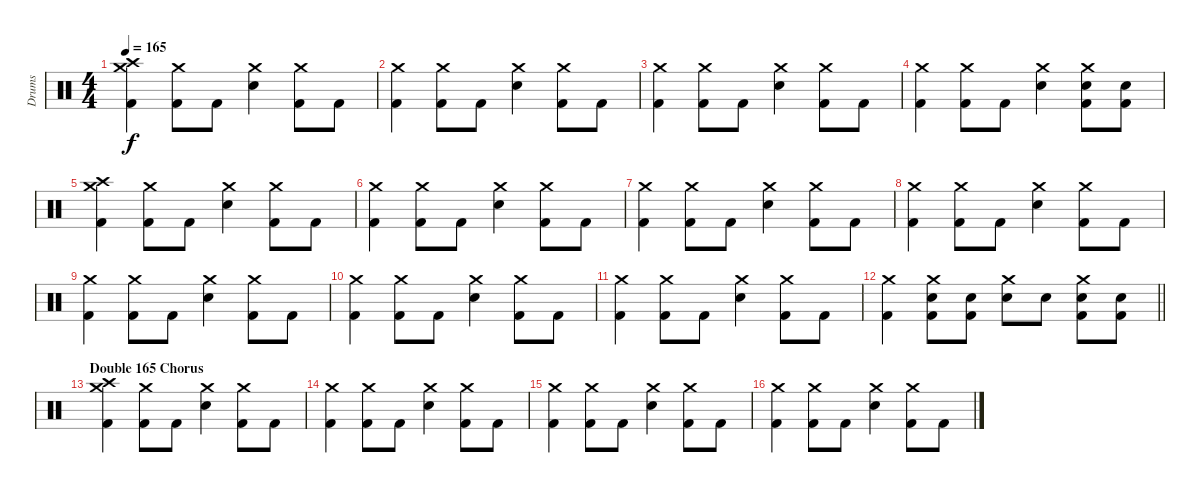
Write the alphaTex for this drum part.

\track ("Drums" "Drums") {instrument percussion}
\staff {score}
\articulation defaults
\ts (4 4)
\tempo 165
\clef neutral
\ks c
("Crash high (hit)" "Crash medium (hit)" "Kick (hit) 2").4{dy f} ("Crash medium (hit)" "Kick (hit) 2").8 "Kick (hit) 2".8 ("Crash medium (hit)" "Snare (hit) 2").4 ("Crash medium (hit)" "Kick (hit) 2").8 "Kick (hit) 2".8 |
("Crash medium (hit)" "Kick (hit) 2").4 ("Crash medium (hit)" "Kick (hit) 2").8 "Kick (hit) 2".8 ("Crash medium (hit)" "Snare (hit) 2").4 ("Crash medium (hit)" "Kick (hit) 2").8 "Kick (hit) 2".8 |
("Crash medium (hit)" "Kick (hit) 2").4 ("Crash medium (hit)" "Kick (hit) 2").8 "Kick (hit) 2".8 ("Crash medium (hit)" "Snare (hit) 2").4 ("Crash medium (hit)" "Kick (hit) 2").8 "Kick (hit) 2".8 |
("Crash medium (hit)" "Kick (hit) 2").4 ("Crash medium (hit)" "Kick (hit) 2").8 "Kick (hit) 2".8 ("Crash medium (hit)" "Snare (hit) 2").4 ("Crash medium (hit)" "Snare (hit) 2" "Kick (hit) 2").8 ("Snare (hit) 2" "Kick (hit) 2").8 |
("Crash high (hit)" "Crash medium (hit)" "Kick (hit) 2").4 ("Crash medium (hit)" "Kick (hit) 2").8 "Kick (hit) 2".8 ("Crash medium (hit)" "Snare (hit) 2").4 ("Crash medium (hit)" "Kick (hit) 2").8 "Kick (hit) 2".8 |
("Crash medium (hit)" "Kick (hit) 2").4 ("Crash medium (hit)" "Kick (hit) 2").8 "Kick (hit) 2".8 ("Crash medium (hit)" "Snare (hit) 2").4 ("Crash medium (hit)" "Kick (hit) 2").8 "Kick (hit) 2".8 |
("Crash medium (hit)" "Kick (hit) 2").4 ("Crash medium (hit)" "Kick (hit) 2").8 "Kick (hit) 2".8 ("Crash medium (hit)" "Snare (hit) 2").4 ("Crash medium (hit)" "Kick (hit) 2").8 "Kick (hit) 2".8 |
("Crash medium (hit)" "Kick (hit) 2").4 ("Crash medium (hit)" "Kick (hit) 2").8 "Kick (hit) 2".8 ("Crash medium (hit)" "Snare (hit) 2").4 ("Crash medium (hit)" "Kick (hit) 2").8 "Kick (hit) 2".8 |
("Crash medium (hit)" "Kick (hit) 2").4 ("Crash medium (hit)" "Kick (hit) 2").8 "Kick (hit) 2".8 ("Crash medium (hit)" "Snare (hit) 2").4 ("Crash medium (hit)" "Kick (hit) 2").8 "Kick (hit) 2".8 |
("Crash medium (hit)" "Kick (hit) 2").4 ("Crash medium (hit)" "Kick (hit) 2").8 "Kick (hit) 2".8 ("Crash medium (hit)" "Snare (hit) 2").4 ("Crash medium (hit)" "Kick (hit) 2").8 "Kick (hit) 2".8 |
("Crash medium (hit)" "Kick (hit) 2").4 ("Crash medium (hit)" "Kick (hit) 2").8 "Kick (hit) 2".8 ("Crash medium (hit)" "Snare (hit) 2").4 ("Crash medium (hit)" "Kick (hit) 2").8 "Kick (hit) 2".8 |
\barLineRight lightlight
("Crash medium (hit)" "Kick (hit) 2").4 ("Crash medium (hit)" "Snare (hit) 2" "Kick (hit) 2").8 ("Snare (hit) 2" "Kick (hit) 2").8 ("Crash medium (hit)" "Snare (hit) 2").8 "Snare (hit) 2".8 ("Crash medium (hit)" "Snare (hit) 2" "Kick (hit) 2").8 ("Snare (hit) 2" "Kick (hit) 2").8 |
\section ("" "Double 165 Chorus")
("Crash high (hit)" "Crash medium (hit)" "Kick (hit) 2").4 ("Crash medium (hit)" "Kick (hit) 2").8 "Kick (hit) 2".8 ("Crash medium (hit)" "Snare (hit) 2").4 ("Crash medium (hit)" "Kick (hit) 2").8 "Kick (hit) 2".8 |
("Crash medium (hit)" "Kick (hit) 2").4 ("Crash medium (hit)" "Kick (hit) 2").8 "Kick (hit) 2".8 ("Crash medium (hit)" "Snare (hit) 2").4 ("Crash medium (hit)" "Kick (hit) 2").8 "Kick (hit) 2".8 |
("Crash medium (hit)" "Kick (hit) 2").4 ("Crash medium (hit)" "Kick (hit) 2").8 "Kick (hit) 2".8 ("Crash medium (hit)" "Snare (hit) 2").4 ("Crash medium (hit)" "Kick (hit) 2").8 "Kick (hit) 2".8 |
("Crash medium (hit)" "Kick (hit) 2").4 ("Crash medium (hit)" "Kick (hit) 2").8 "Kick (hit) 2".8 ("Crash medium (hit)" "Snare (hit) 2").4 ("Crash medium (hit)" "Kick (hit) 2").8 "Kick (hit) 2".8
